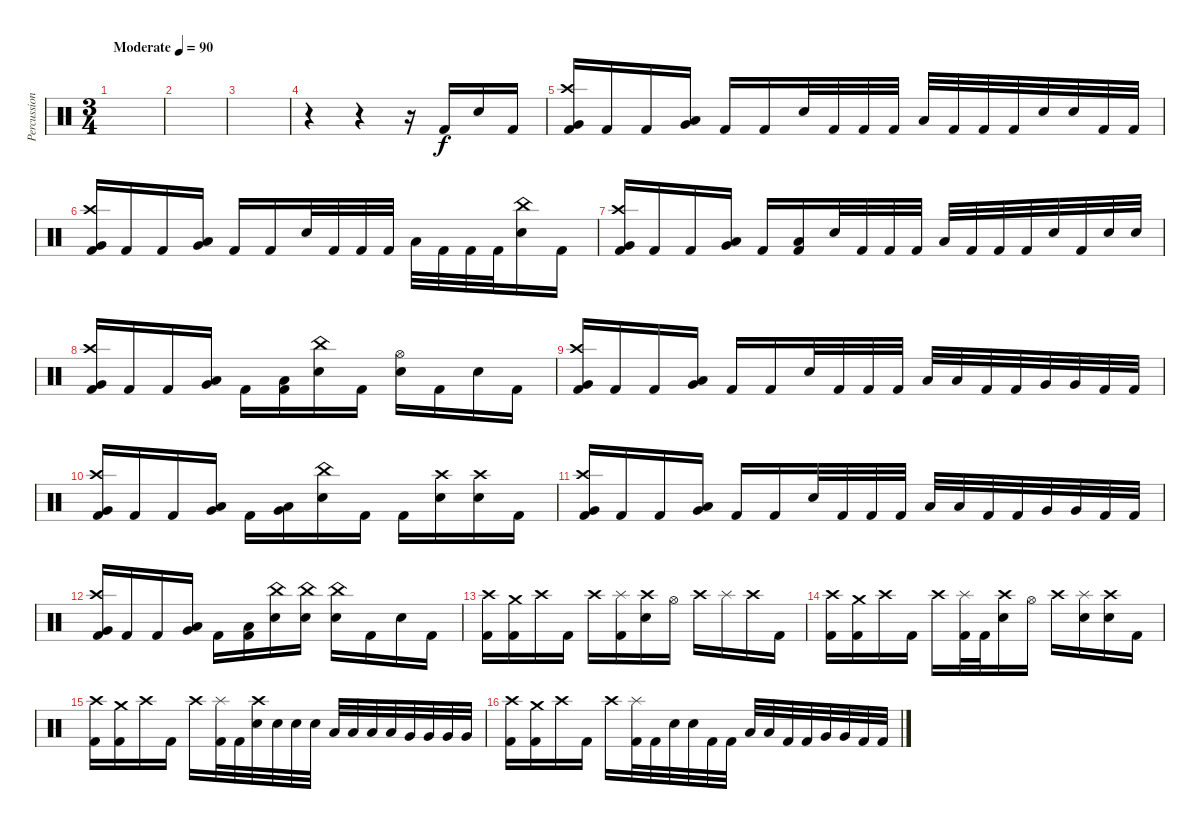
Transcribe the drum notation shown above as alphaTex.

\track ("Percussion" "Percussion") {instrument percussion}
\staff {score}
\articulation defaults
\ts (3 4)
\tempo (90 "Moderate")
\clef neutral
\ks c
|
|
|
r.4 r.4 r.16 "Kick (hit) 2".16 "Electric Snare (hit)".16 "Kick (hit) 2".16 |
("Crash high (hit)" "Very Low Tom (hit)" "Kick (hit) 2").16 "Kick (hit) 2".16 "Kick (hit) 2".16 ("Low Tom (hit)" "Very Low Tom (hit)").16 "Kick (hit) 2".16 "Kick (hit) 2".16 "Electric Snare (hit)".32 "Kick (hit) 2".32 "Kick (hit) 2".32 "Kick (hit) 2".32 "Low Tom (hit)".32 "Kick (hit) 2".32 "Kick (hit) 2".32 "Kick (hit) 2".32 "Electric Snare (hit)".32 "Electric Snare (hit)".32 "Kick (hit) 2".32 "Kick (hit) 2".32 |
("Crash high (hit)" "Very Low Tom (hit)" "Kick (hit) 2").16 "Kick (hit) 2".16 "Kick (hit) 2".16 ("Low Tom (hit)" "Very Low Tom (hit)").16 "Kick (hit) 2".16 "Kick (hit) 2".16 "Electric Snare (hit)".32 "Kick (hit) 2".32 "Kick (hit) 2".32 "Kick (hit) 2".32 "Low Tom (hit)".32 "Kick (hit) 2".32 "Kick (hit) 2".32 "Kick (hit) 2".32 ("China (hit)" "Electric Snare (hit)").16 "Kick (hit) 2".16 |
("Crash high (hit)" "Very Low Tom (hit)" "Kick (hit) 2").16 "Kick (hit) 2".16 "Kick (hit) 2".16 ("Low Tom (hit)" "Very Low Tom (hit)").16 "Kick (hit) 2".16 ("Low Tom (hit)" "Kick (hit) 2").16 "Electric Snare (hit)".32 "Kick (hit) 2".32 "Kick (hit) 2".32 "Kick (hit) 2".32 "Low Tom (hit)".32 "Kick (hit) 2".32 "Kick (hit) 2".32 "Kick (hit) 2".32 "Electric Snare (hit)".32 "Kick (hit) 2".32 "Electric Snare (hit)".32 "Electric Snare (hit)".32 |
("Crash high (hit)" "Very Low Tom (hit)" "Kick (hit) 2").16 "Kick (hit) 2".16 "Kick (hit) 2".16 ("Low Tom (hit)" "Very Low Tom (hit)").16 "Kick (hit) 2".16 ("Low Tom (hit)" "Kick (hit) 2").16 ("China (hit)" "Electric Snare (hit)").16 "Kick (hit) 2".16 ("Hi-Hat (open)" "Electric Snare (hit)").16 "Kick (hit) 2".16 "Electric Snare (hit)".16 "Kick (hit) 2".16 |
("Crash high (hit)" "Very Low Tom (hit)" "Kick (hit) 2").16 "Kick (hit) 2".16 "Kick (hit) 2".16 ("Low Tom (hit)" "Very Low Tom (hit)").16 "Kick (hit) 2".16 "Kick (hit) 2".16 "Electric Snare (hit)".32 "Kick (hit) 2".32 "Kick (hit) 2".32 "Kick (hit) 2".32 "Low Tom (hit)".32 "Low Tom (hit)".32 "Kick (hit) 2".32 "Kick (hit) 2".32 "Very Low Tom (hit)".32 "Very Low Tom (hit)".32 "Kick (hit) 2".32 "Kick (hit) 2".32 |
("Crash high (hit)" "Very Low Tom (hit)" "Kick (hit) 2").16 "Kick (hit) 2".16 "Kick (hit) 2".16 ("Low Tom (hit)" "Very Low Tom (hit)").16 "Kick (hit) 2".16 ("Low Tom (hit)" "Very Low Tom (hit)").16 ("China (hit)" "Electric Snare (hit)").16 "Kick (hit) 2".16 "Kick (hit) 2".16 ("Crash high (hit)" "Electric Snare (hit)").16 ("Crash high (hit)" "Electric Snare (hit)").16 "Kick (hit) 2".16 |
("Crash high (hit)" "Very Low Tom (hit)" "Kick (hit) 2").16 "Kick (hit) 2".16 "Kick (hit) 2".16 ("Low Tom (hit)" "Very Low Tom (hit)").16 "Kick (hit) 2".16 "Kick (hit) 2".16 "Electric Snare (hit)".32 "Kick (hit) 2".32 "Kick (hit) 2".32 "Kick (hit) 2".32 "Low Tom (hit)".32 "Low Tom (hit)".32 "Kick (hit) 2".32 "Kick (hit) 2".32 "Very Low Tom (hit)".32 "Very Low Tom (hit)".32 "Kick (hit) 2".32 "Kick (hit) 2".32 |
("Crash high (hit)" "Very Low Tom (hit)" "Kick (hit) 2").16 "Kick (hit) 2".16 "Kick (hit) 2".16 ("Low Tom (hit)" "Very Low Tom (hit)").16 "Kick (hit) 2".16 ("Low Tom (hit)" "Kick (hit) 2").16 ("China (hit)" "Electric Snare (hit)").16 ("China (hit)" "Electric Snare (hit)").16 ("China (hit)" "Electric Snare (hit)").16 "Kick (hit) 2".16 "Electric Snare (hit)".16 "Kick (hit) 2".16 |
("Crash high (hit)" "Kick (hit) 2").16 ("Crash medium (hit)" "Kick (hit) 2").16 "Crash high (hit)".16 "Kick (hit) 2".16 "Crash high (hit)".16 ("Splash (hit)" "Kick (hit) 2").16 ("Crash high (hit)" "Electric Snare (hit)").16 "Hi-Hat (open)".16 "Crash high (hit)".16 "Splash (hit)".16 "Crash high (hit)".16 "Kick (hit) 2".16 |
("Crash high (hit)" "Kick (hit) 2").16 ("Crash medium (hit)" "Kick (hit) 2").16 "Crash high (hit)".16 "Kick (hit) 2".16 "Crash high (hit)".16 ("Splash (hit)" "Kick (hit) 2").32 "Kick (hit) 2".32 ("Crash high (hit)" "Electric Snare (hit)").16 "Hi-Hat (open)".16 "Crash high (hit)".16 ("Splash (hit)" "Electric Snare (hit)").16 ("Crash high (hit)" "Electric Snare (hit)").16 "Kick (hit) 2".16 |
("Crash high (hit)" "Kick (hit) 2").16 ("Crash medium (hit)" "Kick (hit) 2").16 "Crash high (hit)".16 "Kick (hit) 2".16 "Crash high (hit)".16 ("Splash (hit)" "Kick (hit) 2").32 "Kick (hit) 2".32 ("Crash high (hit)" "Electric Snare (hit)").32 "Electric Snare (hit)".32 "Electric Snare (hit)".32 "Electric Snare (hit)".32 "Low Tom (hit)".32 "Low Tom (hit)".32 "Low Tom (hit)".32 "Low Tom (hit)".32 "Very Low Tom (hit)".32 "Very Low Tom (hit)".32 "Very Low Tom (hit)".32 "Very Low Tom (hit)".32 |
("Crash high (hit)" "Kick (hit) 2").16 ("Crash medium (hit)" "Kick (hit) 2").16 "Crash high (hit)".16 "Kick (hit) 2".16 "Crash high (hit)".16 ("Splash (hit)" "Kick (hit) 2").32 "Kick (hit) 2".32 "Electric Snare (hit)".32 "Electric Snare (hit)".32 "Kick (hit) 2".32 "Kick (hit) 2".32 "Low Tom (hit)".32 "Low Tom (hit)".32 "Kick (hit) 2".32 "Kick (hit) 2".32 "Very Low Tom (hit)".32 "Very Low Tom (hit)".32 "Kick (hit) 2".32 "Kick (hit) 2".32
